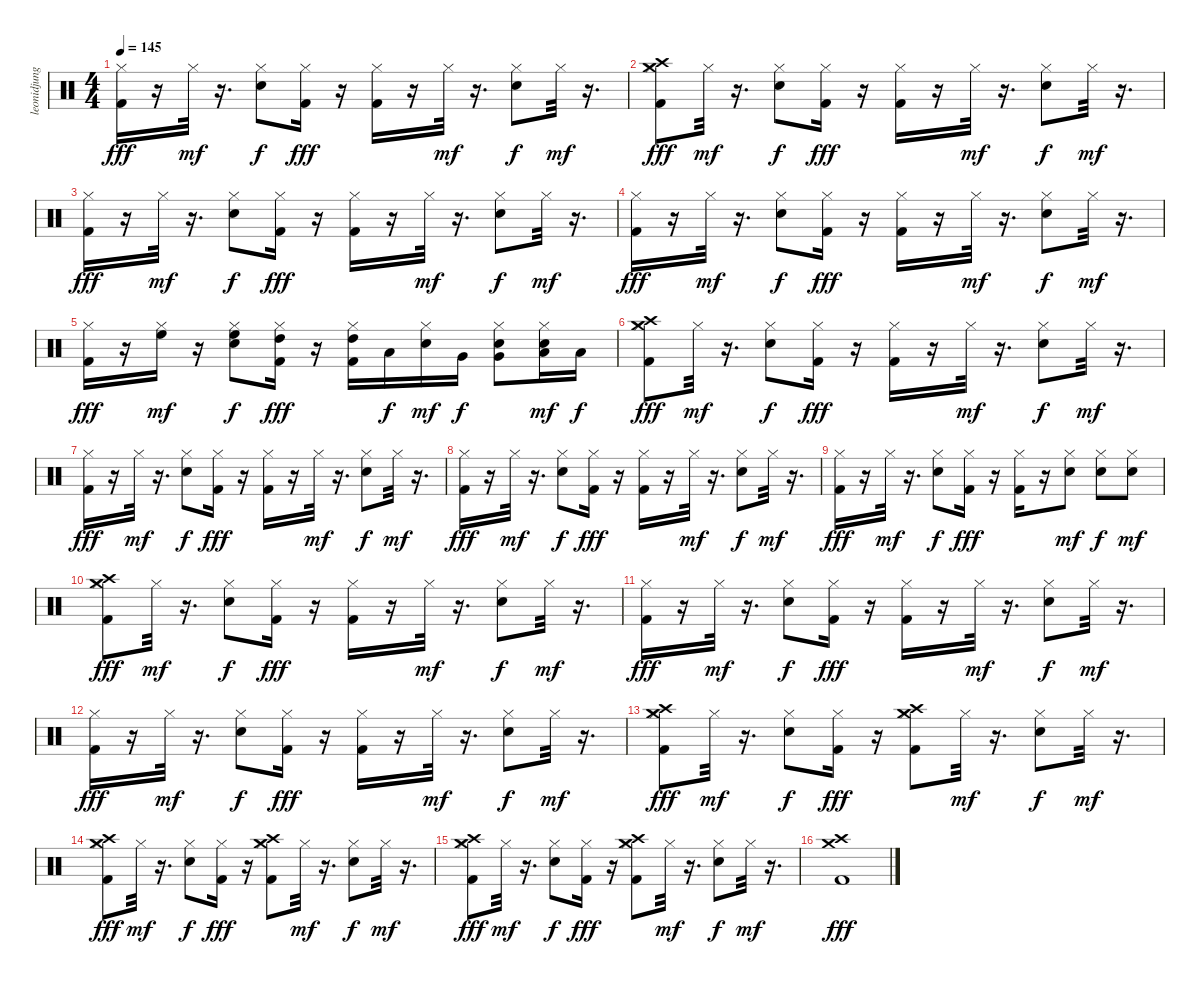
\track ("leonidjung@freenet.de" "leonidjung") {instrument percussion}
\staff {score}
\articulation defaults
\ts (4 4)
\tempo 145
\clef neutral
\ks c
("Hi-Hat (closed)" "Kick (hit) 2").16{dy fff} r.16 "Hi-Hat (closed)".32{dy mf} r.16{d} ("Snare (hit) 2" "Hi-Hat (closed)").8{dy f} ("Hi-Hat (closed)" "Kick (hit) 2").16{dy fff} r.16 ("Hi-Hat (closed)" "Kick (hit) 2").16 r.16 "Hi-Hat (closed)".32{dy mf} r.16{d} ("Snare (hit) 2" "Hi-Hat (closed)").8{dy f} "Hi-Hat (closed)".32{dy mf} r.16{d} |
("Hi-Hat (closed)" "Crash high (hit)" "Crash medium (hit)" "Kick (hit) 2").8{dy fff} "Hi-Hat (closed)".32{dy mf} r.16{d} ("Snare (hit) 2" "Hi-Hat (closed)").8{dy f} ("Hi-Hat (closed)" "Kick (hit) 2").16{dy fff} r.16 ("Hi-Hat (closed)" "Kick (hit) 2").16 r.16 "Hi-Hat (closed)".32{dy mf} r.16{d} ("Snare (hit) 2" "Hi-Hat (closed)").8{dy f} "Hi-Hat (closed)".32{dy mf} r.16{d} |
("Hi-Hat (closed)" "Kick (hit) 2").16{dy fff} r.16 "Hi-Hat (closed)".32{dy mf} r.16{d} ("Snare (hit) 2" "Hi-Hat (closed)").8{dy f} ("Hi-Hat (closed)" "Kick (hit) 2").16{dy fff} r.16 ("Hi-Hat (closed)" "Kick (hit) 2").16 r.16 "Hi-Hat (closed)".32{dy mf} r.16{d} ("Snare (hit) 2" "Hi-Hat (closed)").8{dy f} "Hi-Hat (closed)".32{dy mf} r.16{d} |
("Hi-Hat (closed)" "Kick (hit) 2").16{dy fff} r.16 "Hi-Hat (closed)".32{dy mf} r.16{d} ("Snare (hit) 2" "Hi-Hat (closed)").8{dy f} ("Hi-Hat (closed)" "Kick (hit) 2").16{dy fff} r.16 ("Hi-Hat (closed)" "Kick (hit) 2").16 r.16 "Hi-Hat (closed)".32{dy mf} r.16{d} ("Snare (hit) 2" "Hi-Hat (closed)").8{dy f} "Hi-Hat (closed)".32{dy mf} r.16{d} |
("Hi-Hat (closed)" "Kick (hit) 2").16{dy fff} r.16 ("High Floor Tom (hit)" "Hi-Hat (closed)").16{dy mf} r.16 ("High Floor Tom (hit)" "Snare (hit) 2" "Hi-Hat (closed)").8{dy f} ("High Tom (hit)" "Hi-Hat (closed)" "Kick (hit) 2").16{dy fff} r.16 ("High Tom (hit)" "Hi-Hat (closed)" "Kick (hit) 2").16 "Low Tom (hit)".16{dy f} ("Snare (hit) 2" "Hi-Hat (closed)").16{dy mf} "Very Low Tom (hit)".16{dy f} ("Very Low Tom (hit)" "Snare (hit) 2" "Hi-Hat (closed)").8 ("Low Floor Tom (hit)" "Snare (hit) 2" "Hi-Hat (closed)").16{dy mf} "Low Floor Tom (hit)".16{dy f} |
("Hi-Hat (closed)" "Crash high (hit)" "Crash medium (hit)" "Kick (hit) 2").8{dy fff} "Hi-Hat (closed)".32{dy mf} r.16{d} ("Snare (hit) 2" "Hi-Hat (closed)").8{dy f} ("Hi-Hat (closed)" "Kick (hit) 2").16{dy fff} r.16 ("Hi-Hat (closed)" "Kick (hit) 2").16 r.16 "Hi-Hat (closed)".32{dy mf} r.16{d} ("Snare (hit) 2" "Hi-Hat (closed)").8{dy f} "Hi-Hat (closed)".32{dy mf} r.16{d} |
("Hi-Hat (closed)" "Kick (hit) 2").16{dy fff} r.16 "Hi-Hat (closed)".32{dy mf} r.16{d} ("Snare (hit) 2" "Hi-Hat (closed)").8{dy f} ("Hi-Hat (closed)" "Kick (hit) 2").16{dy fff} r.16 ("Hi-Hat (closed)" "Kick (hit) 2").16 r.16 "Hi-Hat (closed)".32{dy mf} r.16{d} ("Snare (hit) 2" "Hi-Hat (closed)").8{dy f} "Hi-Hat (closed)".32{dy mf} r.16{d} |
("Hi-Hat (closed)" "Kick (hit) 2").16{dy fff} r.16 "Hi-Hat (closed)".32{dy mf} r.16{d} ("Snare (hit) 2" "Hi-Hat (closed)").8{dy f} ("Hi-Hat (closed)" "Kick (hit) 2").16{dy fff} r.16 ("Hi-Hat (closed)" "Kick (hit) 2").16 r.16 "Hi-Hat (closed)".32{dy mf} r.16{d} ("Snare (hit) 2" "Hi-Hat (closed)").8{dy f} "Hi-Hat (closed)".32{dy mf} r.16{d} |
("Hi-Hat (closed)" "Kick (hit) 2").16{dy fff} r.16 "Hi-Hat (closed)".32{dy mf} r.16{d} ("Snare (hit) 2" "Hi-Hat (closed)").8{dy f} ("Hi-Hat (closed)" "Kick (hit) 2").16{dy fff} r.16 ("Hi-Hat (closed)" "Kick (hit) 2").16 r.16 ("Snare (hit) 2" "Hi-Hat (closed)").8{dy mf} ("Snare (hit) 2" "Hi-Hat (closed)").8{dy f} ("Snare (hit) 2" "Hi-Hat (closed)").8{dy mf} |
("Hi-Hat (closed)" "Crash high (hit)" "Crash medium (hit)" "Kick (hit) 2").8{dy fff} "Hi-Hat (closed)".32{dy mf} r.16{d} ("Snare (hit) 2" "Hi-Hat (closed)").8{dy f} ("Hi-Hat (closed)" "Kick (hit) 2").16{dy fff} r.16 ("Hi-Hat (closed)" "Kick (hit) 2").16 r.16 "Hi-Hat (closed)".32{dy mf} r.16{d} ("Snare (hit) 2" "Hi-Hat (closed)").8{dy f} "Hi-Hat (closed)".32{dy mf} r.16{d} |
("Hi-Hat (closed)" "Kick (hit) 2").16{dy fff} r.16 "Hi-Hat (closed)".32{dy mf} r.16{d} ("Snare (hit) 2" "Hi-Hat (closed)").8{dy f} ("Hi-Hat (closed)" "Kick (hit) 2").16{dy fff} r.16 ("Hi-Hat (closed)" "Kick (hit) 2").16 r.16 "Hi-Hat (closed)".32{dy mf} r.16{d} ("Snare (hit) 2" "Hi-Hat (closed)").8{dy f} "Hi-Hat (closed)".32{dy mf} r.16{d} |
("Hi-Hat (closed)" "Kick (hit) 2").16{dy fff} r.16 "Hi-Hat (closed)".32{dy mf} r.16{d} ("Snare (hit) 2" "Hi-Hat (closed)").8{dy f} ("Hi-Hat (closed)" "Kick (hit) 2").16{dy fff} r.16 ("Hi-Hat (closed)" "Kick (hit) 2").16 r.16 "Hi-Hat (closed)".32{dy mf} r.16{d} ("Snare (hit) 2" "Hi-Hat (closed)").8{dy f} "Hi-Hat (closed)".32{dy mf} r.16{d} |
("Hi-Hat (closed)" "Crash high (hit)" "Crash medium (hit)" "Kick (hit) 2").8{dy fff} "Hi-Hat (closed)".32{dy mf} r.16{d} ("Snare (hit) 2" "Hi-Hat (closed)").8{dy f} ("Hi-Hat (closed)" "Kick (hit) 2").16{dy fff} r.16 ("Hi-Hat (closed)" "Crash high (hit)" "Crash medium (hit)" "Kick (hit) 2").8 "Hi-Hat (closed)".32{dy mf} r.16{d} ("Snare (hit) 2" "Hi-Hat (closed)").8{dy f} "Hi-Hat (closed)".32{dy mf} r.16{d} |
("Hi-Hat (closed)" "Crash high (hit)" "Crash medium (hit)" "Kick (hit) 2").8{dy fff} "Hi-Hat (closed)".32{dy mf} r.16{d} ("Snare (hit) 2" "Hi-Hat (closed)").8{dy f} ("Hi-Hat (closed)" "Kick (hit) 2").16{dy fff} r.16 ("Hi-Hat (closed)" "Crash high (hit)" "Crash medium (hit)" "Kick (hit) 2").8 "Hi-Hat (closed)".32{dy mf} r.16{d} ("Snare (hit) 2" "Hi-Hat (closed)").8{dy f} "Hi-Hat (closed)".32{dy mf} r.16{d} |
("Hi-Hat (closed)" "Crash high (hit)" "Crash medium (hit)" "Kick (hit) 2").8{dy fff} "Hi-Hat (closed)".32{dy mf} r.16{d} ("Snare (hit) 2" "Hi-Hat (closed)").8{dy f} ("Hi-Hat (closed)" "Kick (hit) 2").16{dy fff} r.16 ("Hi-Hat (closed)" "Crash high (hit)" "Crash medium (hit)" "Kick (hit) 2").8 "Hi-Hat (closed)".32{dy mf} r.16{d} ("Snare (hit) 2" "Hi-Hat (closed)").8{dy f} "Hi-Hat (closed)".32{dy mf} r.16{d} |
("Crash high (hit)" "Crash medium (hit)" "Kick (hit) 2").1{dy fff}
